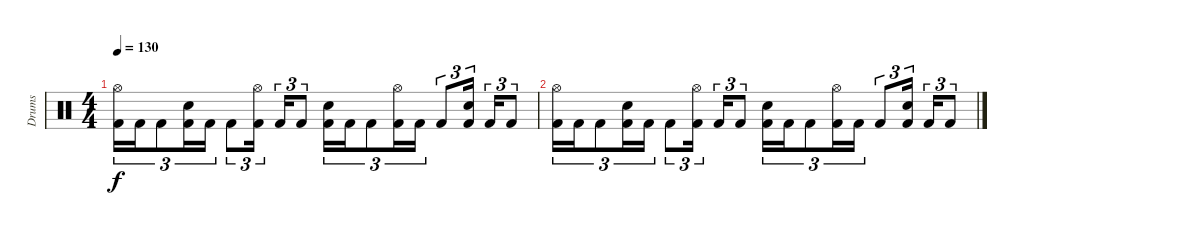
\track ("Drums" "Drums") {instrument percussion}
\staff {score}
\articulation defaults
\ts (4 4)
\tempo 130
\clef neutral
\ks c
("Hi-Hat (open)" "Kick (hit) 2").16{tu (3 2) dy f} "Kick (hit) 2".16{tu (3 2)} "Kick (hit) 2".8{tu (3 2)} ("Snare (hit) 2" "Kick (hit) 2").16{tu (3 2)} "Kick (hit) 2".16{tu (3 2)} "Kick (hit) 2".8{tu (3 2)} ("Hi-Hat (open)" "Kick (hit) 2").16{tu (3 2)} "Kick (hit) 2".16{tu (3 2)} "Kick (hit) 2".8{tu (3 2)} ("Snare (hit) 2" "Kick (hit) 2").16{tu (3 2)} "Kick (hit) 2".16{tu (3 2)} "Kick (hit) 2".8{tu (3 2)} ("Hi-Hat (open)" "Kick (hit) 2").16{tu (3 2)} "Kick (hit) 2".16{tu (3 2)} "Kick (hit) 2".8{tu (3 2)} ("Snare (hit) 2" "Kick (hit) 2").16{tu (3 2)} "Kick (hit) 2".16{tu (3 2)} "Kick (hit) 2".8{tu (3 2)} |
("Hi-Hat (open)" "Kick (hit) 2").16{tu (3 2)} "Kick (hit) 2".16{tu (3 2)} "Kick (hit) 2".8{tu (3 2)} ("Snare (hit) 2" "Kick (hit) 2").16{tu (3 2)} "Kick (hit) 2".16{tu (3 2)} "Kick (hit) 2".8{tu (3 2)} ("Hi-Hat (open)" "Kick (hit) 2").16{tu (3 2)} "Kick (hit) 2".16{tu (3 2)} "Kick (hit) 2".8{tu (3 2)} ("Snare (hit) 2" "Kick (hit) 2").16{tu (3 2)} "Kick (hit) 2".16{tu (3 2)} "Kick (hit) 2".8{tu (3 2)} ("Hi-Hat (open)" "Kick (hit) 2").16{tu (3 2)} "Kick (hit) 2".16{tu (3 2)} "Kick (hit) 2".8{tu (3 2)} ("Snare (hit) 2" "Kick (hit) 2").16{tu (3 2)} "Kick (hit) 2".16{tu (3 2)} "Kick (hit) 2".8{tu (3 2)}
